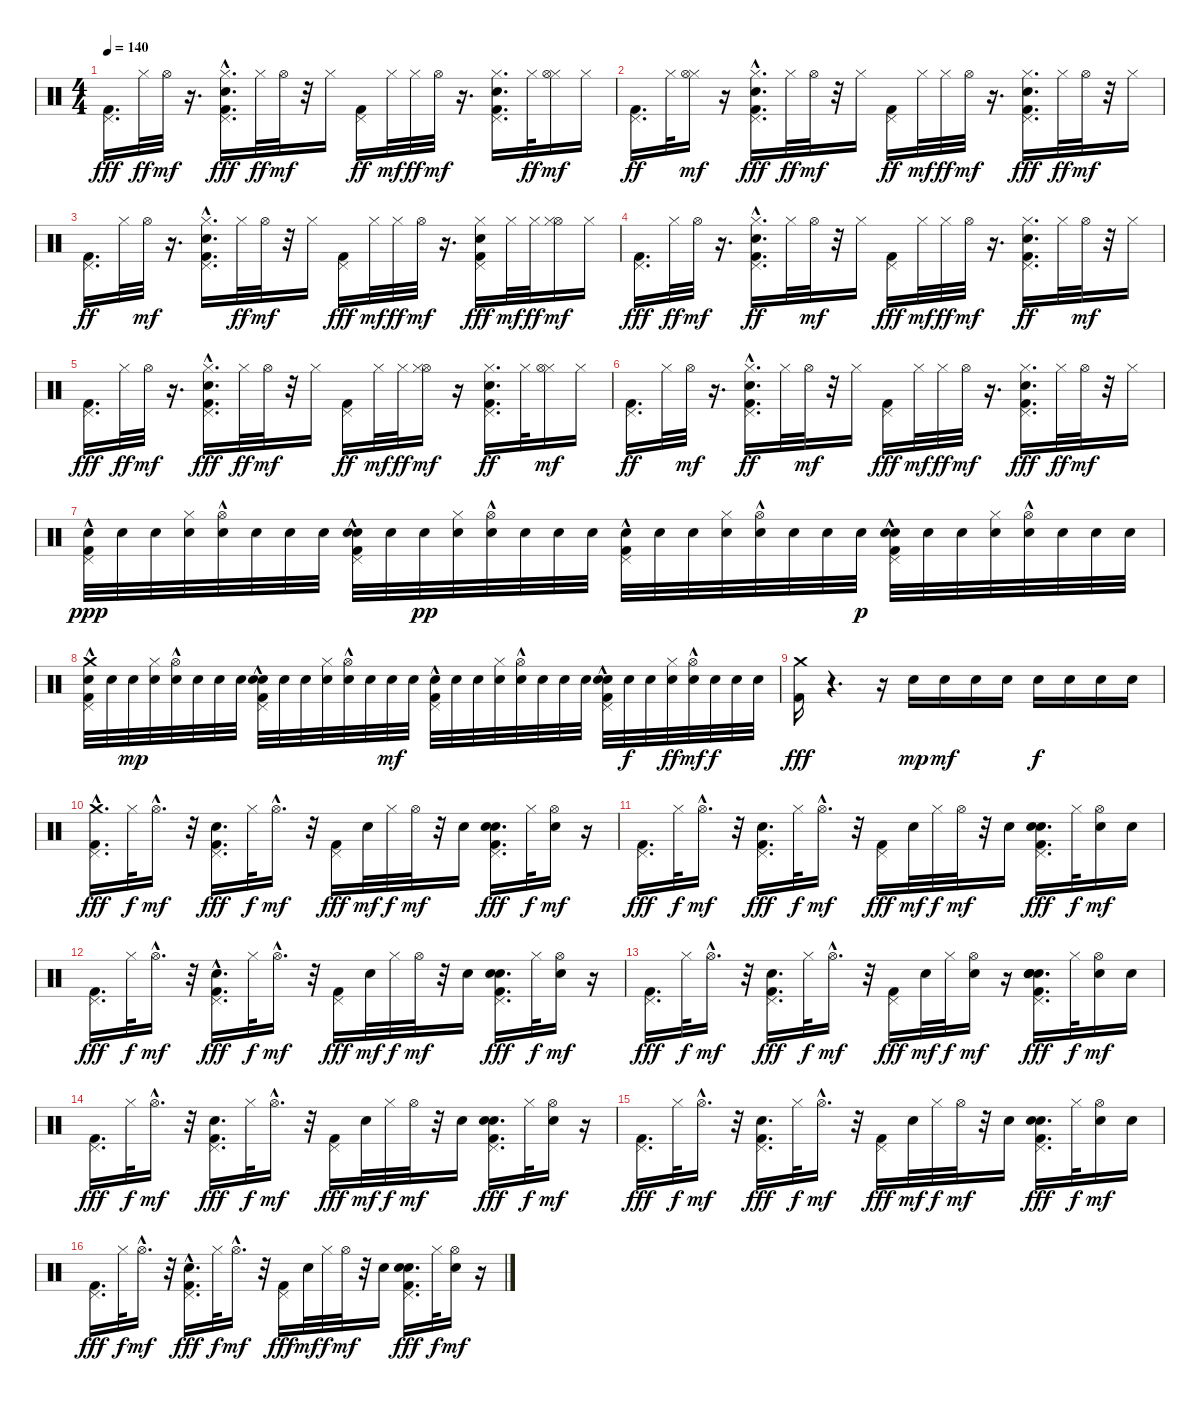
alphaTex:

\track "" {instrument percussion}
\staff {score}
\articulation defaults
\ts (4 4)
\tempo 140
\clef neutral
\ks c
("Pedal Hi-Hat (hit)" "Kick (hit) 2").16{d dy fff} "Hi-Hat (closed)".32{dy ff} "Hi-Hat (open)".32{dy mf} r.16{d} ("Hi-Hat (closed)" "Pedal Hi-Hat (hit)" "Hand Clap (hit)"{hac} "Kick (hit) 2").16{d dy fff} "Hi-Hat (closed)".32{dy ff} "Hi-Hat (open)".32{dy mf} r.32 "Hi-Hat (closed)".16 ("Kick (hit) 2" "Pedal Hi-Hat (hit)").16{dy ff} "Hi-Hat (closed)".32{dy mf} "Hi-Hat (closed)".32{dy ff} "Hi-Hat (open)".32{dy mf} r.16{d} ("Hand Clap (hit)" "Pedal Hi-Hat (hit)" "Kick (hit) 2" "Hi-Hat (closed)").16{d} "Hi-Hat (closed)".32{dy ff} ("Hi-Hat (closed)" "Hi-Hat (open)").16{dy mf} "Hi-Hat (closed)".16 |
("Kick (hit) 2" "Pedal Hi-Hat (hit)").16{d dy ff} "Hi-Hat (closed)".32 ("Hi-Hat (closed)" "Hi-Hat (open)").16{dy mf} r.16 ("Hi-Hat (closed)" "Pedal Hi-Hat (hit)" "Kick (hit) 2" "Hand Clap (hit)"{hac}).16{d dy fff} "Hi-Hat (closed)".32{dy ff} "Hi-Hat (open)".32{dy mf} r.32 "Hi-Hat (closed)".16 ("Kick (hit) 2" "Pedal Hi-Hat (hit)").16{dy ff} "Hi-Hat (closed)".32{dy mf} "Hi-Hat (closed)".32{dy ff} "Hi-Hat (open)".32{dy mf} r.16{d} ("Hi-Hat (closed)" "Pedal Hi-Hat (hit)" "Kick (hit) 2" "Hand Clap (hit)").16{d dy fff} "Hi-Hat (closed)".32{dy ff} "Hi-Hat (open)".32{dy mf} r.32 "Hi-Hat (closed)".16 |
("Kick (hit) 2" "Pedal Hi-Hat (hit)").16{d dy ff} "Hi-Hat (closed)".32 "Hi-Hat (open)".32{dy mf} r.16{d} ("Hand Clap (hit)"{hac} "Pedal Hi-Hat (hit)" "Kick (hit) 2" "Hi-Hat (closed)").16{d} "Hi-Hat (closed)".32{dy ff} "Hi-Hat (open)".32{dy mf} r.32 "Hi-Hat (closed)".16 ("Pedal Hi-Hat (hit)" "Kick (hit) 2").16{dy fff} "Hi-Hat (closed)".32{dy mf} "Hi-Hat (closed)".32{dy ff} "Hi-Hat (open)".32{dy mf} r.16{d} ("Hi-Hat (closed)" "Pedal Hi-Hat (hit)" "Hand Clap (hit)" "Kick (hit) 2").16{dy fff} "Hi-Hat (closed)".32{dy mf} "Hi-Hat (closed)".32{dy ff} ("Hi-Hat (open)" "Hi-Hat (closed)").16{dy mf} "Hi-Hat (closed)".16 |
("Pedal Hi-Hat (hit)" "Kick (hit) 2").16{d dy fff} "Hi-Hat (closed)".32{dy ff} "Hi-Hat (open)".32{dy mf} r.16{d} ("Hand Clap (hit)"{hac} "Hi-Hat (closed)" "Kick (hit) 2" "Pedal Hi-Hat (hit)").16{d dy ff} "Hi-Hat (closed)".32 "Hi-Hat (open)".32{dy mf} r.32 "Hi-Hat (closed)".16 ("Pedal Hi-Hat (hit)" "Kick (hit) 2").16{dy fff} "Hi-Hat (closed)".32{dy mf} "Hi-Hat (closed)".32{dy ff} "Hi-Hat (open)".32{dy mf} r.16{d} ("Hand Clap (hit)" "Hi-Hat (closed)" "Kick (hit) 2" "Pedal Hi-Hat (hit)").16{d dy ff} "Hi-Hat (closed)".32 "Hi-Hat (open)".32{dy mf} r.32 "Hi-Hat (closed)".16 |
("Pedal Hi-Hat (hit)" "Kick (hit) 2").16{d dy fff} "Hi-Hat (closed)".32{dy ff} "Hi-Hat (open)".32{dy mf} r.16{d} ("Pedal Hi-Hat (hit)" "Hi-Hat (closed)" "Hand Clap (hit)"{hac} "Kick (hit) 2").16{d dy fff} "Hi-Hat (closed)".32{dy ff} "Hi-Hat (open)".32{dy mf} r.32 "Hi-Hat (closed)".16 ("Kick (hit) 2" "Pedal Hi-Hat (hit)").16{dy ff} "Hi-Hat (closed)".32{dy mf} "Hi-Hat (closed)".32{dy ff} ("Hi-Hat (open)" "Hi-Hat (closed)").16{dy mf} r.16 ("Hand Clap (hit)" "Hi-Hat (closed)" "Kick (hit) 2" "Pedal Hi-Hat (hit)").16{d dy ff} "Hi-Hat (closed)".32 ("Hi-Hat (closed)" "Hi-Hat (open)").16{dy mf} "Hi-Hat (closed)".16 |
("Kick (hit) 2" "Pedal Hi-Hat (hit)").16{d dy ff} "Hi-Hat (closed)".32 "Hi-Hat (open)".32{dy mf} r.16{d} ("Hi-Hat (closed)" "Hand Clap (hit)"{hac} "Kick (hit) 2" "Pedal Hi-Hat (hit)").16{d dy ff} "Hi-Hat (closed)".32 "Hi-Hat (open)".32{dy mf} r.32 "Hi-Hat (closed)".16 ("Pedal Hi-Hat (hit)" "Kick (hit) 2").16{dy fff} "Hi-Hat (closed)".32{dy mf} "Hi-Hat (closed)".32{dy ff} "Hi-Hat (open)".32{dy mf} r.16{d} ("Pedal Hi-Hat (hit)" "Hi-Hat (closed)" "Kick (hit) 2" "Hand Clap (hit)").16{d dy fff} "Hi-Hat (closed)".32{dy ff} "Hi-Hat (open)".32{dy mf} r.32 "Hi-Hat (closed)".16 |
("Kick (hit) 2" "Pedal Hi-Hat (hit)"{hac} "Snare (hit) 2").32{dy ppp} "Snare (hit) 2".32 "Snare (hit) 2".32 ("Hi-Hat (closed)" "Snare (hit) 2").32 ("Hi-Hat (open)"{hac} "Snare (hit) 2").32 "Snare (hit) 2".32 "Snare (hit) 2".32 "Snare (hit) 2".32 ("Kick (hit) 2" "Pedal Hi-Hat (hit)"{hac} "Hand Clap (hit)"{hac} "Snare (hit) 2").32 "Snare (hit) 2".32 "Snare (hit) 2".32{dy pp} ("Hi-Hat (closed)" "Snare (hit) 2").32 ("Hi-Hat (open)"{hac} "Snare (hit) 2").32 "Snare (hit) 2".32 "Snare (hit) 2".32 "Snare (hit) 2".32 ("Pedal Hi-Hat (hit)"{hac} "Kick (hit) 2"{hac} "Snare (hit) 2").32 "Snare (hit) 2".32 "Snare (hit) 2".32 ("Hi-Hat (closed)" "Snare (hit) 2").32 ("Hi-Hat (open)"{hac} "Snare (hit) 2").32 "Snare (hit) 2".32 "Snare (hit) 2".32 "Snare (hit) 2".32{dy p} ("Kick (hit) 2"{hac} "Hand Clap (hit)" "Pedal Hi-Hat (hit)"{hac} "Snare (hit) 2").32 "Snare (hit) 2".32 "Snare (hit) 2".32 ("Hi-Hat (closed)" "Snare (hit) 2").32 ("Hi-Hat (open)"{hac} "Snare (hit) 2").32 "Snare (hit) 2".32 "Snare (hit) 2".32 "Snare (hit) 2".32 |
("Crash medium (hit)" "Pedal Hi-Hat (hit)"{hac} "Kick (hit) 2" "Snare (hit) 2").32 "Snare (hit) 2".32 "Snare (hit) 2".32{dy mp} ("Hi-Hat (closed)" "Snare (hit) 2").32 ("Hi-Hat (open)"{hac} "Snare (hit) 2").32 "Snare (hit) 2".32 "Snare (hit) 2".32 "Snare (hit) 2".32 ("Hand Clap (hit)"{hac} "Kick (hit) 2" "Pedal Hi-Hat (hit)"{hac} "Snare (hit) 2").32 "Snare (hit) 2".32 "Snare (hit) 2".32 ("Hi-Hat (closed)" "Snare (hit) 2").32 ("Hi-Hat (open)"{hac} "Snare (hit) 2").32 "Snare (hit) 2".32 "Snare (hit) 2".32{dy mf} "Snare (hit) 2".32 ("Kick (hit) 2"{hac} "Pedal Hi-Hat (hit)"{hac} "Snare (hit) 2").32 "Snare (hit) 2".32 "Snare (hit) 2".32 ("Hi-Hat (closed)" "Snare (hit) 2").32 ("Hi-Hat (open)"{hac} "Snare (hit) 2").32 "Snare (hit) 2".32 "Snare (hit) 2".32 "Snare (hit) 2".32 ("Kick (hit) 2"{hac} "Pedal Hi-Hat (hit)"{hac} "Hand Clap (hit)" "Snare (hit) 2").32 "Snare (hit) 2".32{dy f} "Snare (hit) 2".32 ("Hi-Hat (closed)" "Snare (hit) 2").32{dy ff} ("Hi-Hat (open)"{hac} "Snare (hit) 2").32{dy mf} "Snare (hit) 2".32{dy f} "Snare (hit) 2".32 "Snare (hit) 2".32 |
("Crash medium (hit)" "Kick (hit) 2").16{dy fff} r.4{d} r.16 "Snare (hit) 2".16{dy mp} "Snare (hit) 2".16{dy mf} "Snare (hit) 2".16 "Snare (hit) 2".16 "Snare (hit) 2".16{dy f} "Snare (hit) 2".16 "Snare (hit) 2".16 "Snare (hit) 2".16 |
("Crash medium (hit)"{hac} "Pedal Hi-Hat (hit)" "Kick (hit) 2").16{d dy fff} "Hi-Hat (closed)".32{dy f} "Hi-Hat (open)"{hac}.16{d dy mf} r.32 ("Snare (hit) 2" "Pedal Hi-Hat (hit)" "Kick (hit) 2").16{d dy fff} "Hi-Hat (closed)".32{dy f} "Hi-Hat (open)"{hac}.16{d dy mf} r.32 ("Pedal Hi-Hat (hit)" "Kick (hit) 2").16{dy fff} "Electric Snare (hit)".32{dy mf} "Hi-Hat (closed)".32{dy f} "Hi-Hat (open)".32{dy mf} r.32 "Electric Snare (hit)".16 ("Hand Clap (hit)" "Snare (hit) 2" "Pedal Hi-Hat (hit)" "Kick (hit) 2").16{d dy fff} "Hi-Hat (closed)".32{dy f} ("Electric Snare (hit)" "Hi-Hat (open)").16{dy mf} r.16 |
("Pedal Hi-Hat (hit)" "Kick (hit) 2").16{d dy fff} "Hi-Hat (closed)".32{dy f} "Hi-Hat (open)"{hac}.16{d dy mf} r.32 ("Pedal Hi-Hat (hit)" "Snare (hit) 2" "Kick (hit) 2").16{d dy fff} "Hi-Hat (closed)".32{dy f} "Hi-Hat (open)"{hac}.16{d dy mf} r.32 ("Pedal Hi-Hat (hit)" "Kick (hit) 2").16{dy fff} "Electric Snare (hit)".32{dy mf} "Hi-Hat (closed)".32{dy f} "Hi-Hat (open)".32{dy mf} r.32 "Electric Snare (hit)".16 ("Pedal Hi-Hat (hit)" "Hand Clap (hit)" "Snare (hit) 2" "Kick (hit) 2").16{d dy fff} "Hi-Hat (closed)".32{dy f} ("Electric Snare (hit)" "Hi-Hat (open)").16{dy mf} "Electric Snare (hit)".16 |
("Pedal Hi-Hat (hit)" "Kick (hit) 2").16{d dy fff} "Hi-Hat (closed)".32{dy f} "Hi-Hat (open)"{hac}.16{d dy mf} r.32 ("Snare (hit) 2" "Pedal Hi-Hat (hit)" "Kick (hit) 2"{hac}).16{d dy fff} "Hi-Hat (closed)".32{dy f} "Hi-Hat (open)"{hac}.16{d dy mf} r.32 ("Pedal Hi-Hat (hit)" "Kick (hit) 2").16{dy fff} "Electric Snare (hit)".32{dy mf} "Hi-Hat (closed)".32{dy f} "Hi-Hat (open)".32{dy mf} r.32 "Electric Snare (hit)".16 ("Pedal Hi-Hat (hit)" "Snare (hit) 2" "Hand Clap (hit)" "Kick (hit) 2").16{d dy fff} "Hi-Hat (closed)".32{dy f} ("Electric Snare (hit)" "Hi-Hat (open)").16{dy mf} r.16 |
("Pedal Hi-Hat (hit)" "Kick (hit) 2").16{d dy fff} "Hi-Hat (closed)".32{dy f} "Hi-Hat (open)"{hac}.16{d dy mf} r.32 ("Pedal Hi-Hat (hit)" "Snare (hit) 2" "Kick (hit) 2").16{d dy fff} "Hi-Hat (closed)".32{dy f} "Hi-Hat (open)"{hac}.16{d dy mf} r.32 ("Pedal Hi-Hat (hit)" "Kick (hit) 2").16{dy fff} "Electric Snare (hit)".32{dy mf} "Hi-Hat (closed)".32{dy f} ("Electric Snare (hit)" "Hi-Hat (open)").16{dy mf} r.16 ("Snare (hit) 2" "Pedal Hi-Hat (hit)" "Hand Clap (hit)" "Hand Clap (hit)" "Electric Snare (hit)" "Kick (hit) 2").16{d dy fff} "Hi-Hat (closed)".32{dy f} ("Electric Snare (hit)" "Hi-Hat (open)").16{dy mf} "Electric Snare (hit)".16 |
("Pedal Hi-Hat (hit)" "Kick (hit) 2").16{d dy fff} "Hi-Hat (closed)".32{dy f} "Hi-Hat (open)"{hac}.16{d dy mf} r.32 ("Snare (hit) 2" "Pedal Hi-Hat (hit)" "Kick (hit) 2").16{d dy fff} "Hi-Hat (closed)".32{dy f} "Hi-Hat (open)"{hac}.16{d dy mf} r.32 ("Pedal Hi-Hat (hit)" "Kick (hit) 2").16{dy fff} "Electric Snare (hit)".32{dy mf} "Hi-Hat (closed)".32{dy f} "Hi-Hat (open)".32{dy mf} r.32 "Electric Snare (hit)".16 ("Pedal Hi-Hat (hit)" "Hand Clap (hit)" "Snare (hit) 2" "Kick (hit) 2").16{d dy fff} "Hi-Hat (closed)".32{dy f} ("Electric Snare (hit)" "Hi-Hat (open)").16{dy mf} r.16 |
("Pedal Hi-Hat (hit)" "Kick (hit) 2").16{d dy fff} "Hi-Hat (closed)".32{dy f} "Hi-Hat (open)"{hac}.16{d dy mf} r.32 ("Pedal Hi-Hat (hit)" "Snare (hit) 2" "Kick (hit) 2").16{d dy fff} "Hi-Hat (closed)".32{dy f} "Hi-Hat (open)"{hac}.16{d dy mf} r.32 ("Pedal Hi-Hat (hit)" "Kick (hit) 2").16{dy fff} "Electric Snare (hit)".32{dy mf} "Hi-Hat (closed)".32{dy f} "Hi-Hat (open)".32{dy mf} r.32 "Electric Snare (hit)".16 ("Snare (hit) 2" "Hand Clap (hit)" "Pedal Hi-Hat (hit)" "Kick (hit) 2").16{d dy fff} "Hi-Hat (closed)".32{dy f} ("Electric Snare (hit)" "Hi-Hat (open)").16{dy mf} "Electric Snare (hit)".16 |
("Pedal Hi-Hat (hit)" "Kick (hit) 2").16{d dy fff} "Hi-Hat (closed)".32{dy f} "Hi-Hat (open)"{hac}.16{d dy mf} r.32 ("Pedal Hi-Hat (hit)" "Snare (hit) 2" "Kick (hit) 2"{hac}).16{d dy fff} "Hi-Hat (closed)".32{dy f} "Hi-Hat (open)"{hac}.16{d dy mf} r.32 ("Pedal Hi-Hat (hit)" "Kick (hit) 2").16{dy fff} "Electric Snare (hit)".32{dy mf} "Hi-Hat (closed)".32{dy f} "Hi-Hat (open)".32{dy mf} r.32 "Electric Snare (hit)".16 ("Pedal Hi-Hat (hit)" "Hand Clap (hit)" "Snare (hit) 2" "Kick (hit) 2").16{d dy fff} "Hi-Hat (closed)".32{dy f} ("Electric Snare (hit)" "Hi-Hat (open)").16{dy mf} r.16
